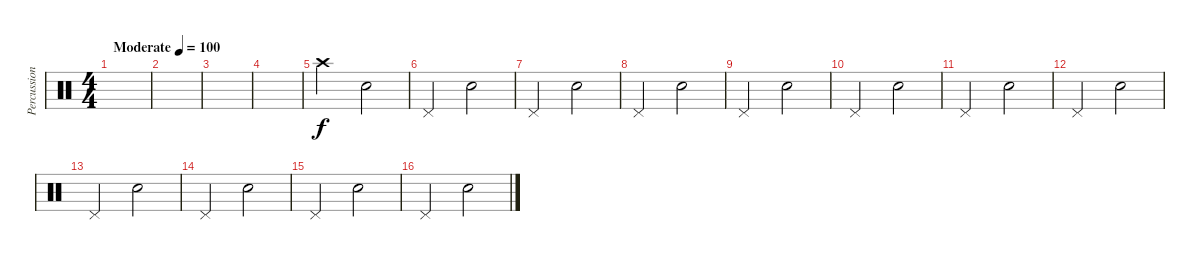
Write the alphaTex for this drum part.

\track ("Percussioni" "Percussion") {instrument percussion}
\staff {score}
\articulation defaults
\ts (4 4)
\tempo (100 "Moderate")
\clef neutral
\ks c
|
|
|
|
"Crash high (hit)".2 "Snare (hit) 2".2 |
"Pedal Hi-Hat (hit)".2 "Snare (hit) 2".2 |
"Pedal Hi-Hat (hit)".2 "Snare (hit) 2".2 |
"Pedal Hi-Hat (hit)".2 "Snare (hit) 2".2 |
"Pedal Hi-Hat (hit)".2 "Snare (hit) 2".2 |
"Pedal Hi-Hat (hit)".2 "Snare (hit) 2".2 |
"Pedal Hi-Hat (hit)".2 "Snare (hit) 2".2 |
"Pedal Hi-Hat (hit)".2 "Snare (hit) 2".2 |
"Pedal Hi-Hat (hit)".2 "Snare (hit) 2".2 |
"Pedal Hi-Hat (hit)".2 "Snare (hit) 2".2 |
"Pedal Hi-Hat (hit)".2 "Snare (hit) 2".2 |
"Pedal Hi-Hat (hit)".2 "Snare (hit) 2".2
